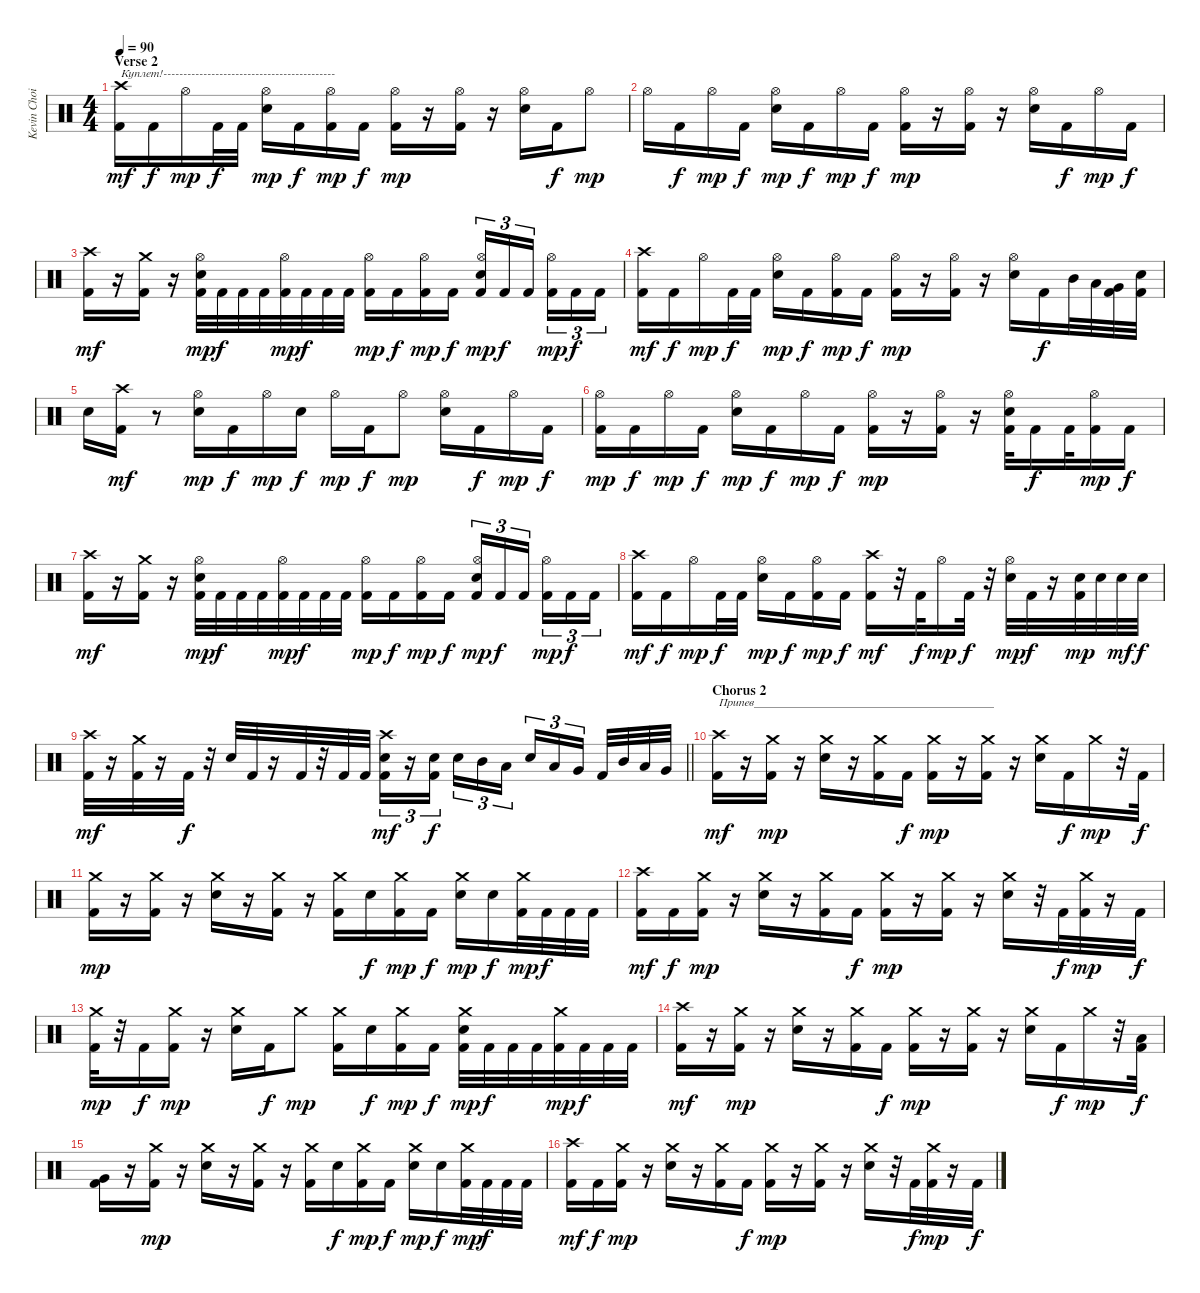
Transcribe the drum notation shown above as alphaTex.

\track ("Kevin Choiral" "Kevin Choi") {instrument percussion}
\staff
\articulation defaults
\ts (4 4)
\section ("" "Verse 2")
\tempo 90
\clef neutral
\ks c
("Crash high (hit)" "Kick (hit) 2").16{txt "Куплет!-------------------------------------------" dy mf} "Kick (hit) 2".16{dy f} "Hi-Hat (open)".16{dy mp} "Kick (hit) 2".32{dy f} "Kick (hit) 2".32 ("Hi-Hat (open)" "Electric Snare (hit)").16{dy mp} "Kick (hit) 2".16{dy f} ("Hi-Hat (open)" "Kick (hit) 2").16{dy mp} "Kick (hit) 2".16{dy f} ("Hi-Hat (open)" "Kick (hit) 2").16{dy mp} r.16 ("Hi-Hat (open)" "Kick (hit) 2").16 r.16 ("Hi-Hat (open)" "Electric Snare (hit)").16 "Kick (hit) 2".16{dy f} "Hi-Hat (open)".8{dy mp} |
"Hi-Hat (open)".16 "Kick (hit) 2".16{dy f} "Hi-Hat (open)".16{dy mp} "Kick (hit) 2".16{dy f} ("Hi-Hat (open)" "Electric Snare (hit)").16{dy mp} "Kick (hit) 2".16{dy f} "Hi-Hat (open)".16{dy mp} "Kick (hit) 2".16{dy f} ("Hi-Hat (open)" "Kick (hit) 2").16{dy mp} r.16 ("Hi-Hat (open)" "Kick (hit) 2").16 r.16 ("Hi-Hat (open)" "Electric Snare (hit)").16 "Kick (hit) 2".16{dy f} "Hi-Hat (open)".16{dy mp} "Kick (hit) 2".16{dy f} |
("Crash high (hit)" "Kick (hit) 2").16{dy mf} r.16 ("Crash medium (hit)" "Kick (hit) 2").16 r.16 ("Hi-Hat (open)" "Electric Snare (hit)" "Kick (hit) 2").32{dy mp} "Kick (hit) 2".32{dy f} "Kick (hit) 2".32 "Kick (hit) 2".32 ("Hi-Hat (open)" "Kick (hit) 2").32{dy mp} "Kick (hit) 2".32{dy f} "Kick (hit) 2".32 "Kick (hit) 2".32 ("Hi-Hat (open)" "Kick (hit) 2").16{dy mp} "Kick (hit) 2".16{dy f} ("Hi-Hat (open)" "Kick (hit) 2").16{dy mp} "Kick (hit) 2".16{dy f} ("Hi-Hat (open)" "Electric Snare (hit)" "Kick (hit) 2").16{tu (3 2) dy mp} "Kick (hit) 2".16{tu (3 2) dy f} "Kick (hit) 2".16{tu (3 2) beam splitsecondary} ("Hi-Hat (open)" "Kick (hit) 2").16{tu (3 2) dy mp} "Kick (hit) 2".16{tu (3 2) dy f} "Kick (hit) 2".16{tu (3 2)} |
("Crash high (hit)" "Kick (hit) 2").16{dy mf} "Kick (hit) 2".16{dy f} "Hi-Hat (open)".16{dy mp} "Kick (hit) 2".32{dy f} "Kick (hit) 2".32 ("Hi-Hat (open)" "Electric Snare (hit)").16{dy mp} "Kick (hit) 2".16{dy f} ("Hi-Hat (open)" "Kick (hit) 2").16{dy mp} "Kick (hit) 2".16{dy f} ("Hi-Hat (open)" "Kick (hit) 2").16{dy mp} r.16 ("Hi-Hat (open)" "Kick (hit) 2").16 r.16 ("Hi-Hat (open)" "Electric Snare (hit)").16 "Kick (hit) 2".16{dy f} "Mid Tom (hit)".32 "Low Tom (hit)".32 ("Very Low Tom (hit)" "Kick (hit) 2").32 ("Electric Snare (hit)" "Kick (hit) 2").32 |
"Electric Snare (hit)".16 ("Crash high (hit)" "Kick (hit) 2").16{dy mf} r.8 ("Hi-Hat (open)" "Electric Snare (hit)").16{dy mp} "Kick (hit) 2".16{dy f} "Hi-Hat (open)".16{dy mp} "Electric Snare (hit)".16{dy f} "Hi-Hat (open)".16{dy mp} "Kick (hit) 2".16{dy f} "Hi-Hat (open)".8{dy mp} ("Hi-Hat (open)" "Electric Snare (hit)").16 "Kick (hit) 2".16{dy f} "Hi-Hat (open)".16{dy mp} "Kick (hit) 2".16{dy f} |
("Hi-Hat (open)" "Kick (hit) 2").16{dy mp} "Kick (hit) 2".16{dy f} "Hi-Hat (open)".16{dy mp} "Kick (hit) 2".16{dy f} ("Hi-Hat (open)" "Electric Snare (hit)").16{dy mp} "Kick (hit) 2".16{dy f} "Hi-Hat (open)".16{dy mp} "Kick (hit) 2".16{dy f} ("Hi-Hat (open)" "Kick (hit) 2").16{dy mp} r.16 ("Hi-Hat (open)" "Kick (hit) 2").16 r.16 ("Hi-Hat (open)" "Electric Snare (hit)" "Kick (hit) 2").32 "Kick (hit) 2".16{dy f} "Kick (hit) 2".32 ("Hi-Hat (open)" "Kick (hit) 2").16{dy mp} "Kick (hit) 2".16{dy f} |
("Crash high (hit)" "Kick (hit) 2").16{dy mf} r.16 ("Crash medium (hit)" "Kick (hit) 2").16 r.16 ("Hi-Hat (open)" "Electric Snare (hit)" "Kick (hit) 2").32{dy mp} "Kick (hit) 2".32{dy f} "Kick (hit) 2".32 "Kick (hit) 2".32 ("Hi-Hat (open)" "Kick (hit) 2").32{dy mp} "Kick (hit) 2".32{dy f} "Kick (hit) 2".32 "Kick (hit) 2".32 ("Hi-Hat (open)" "Kick (hit) 2").16{dy mp} "Kick (hit) 2".16{dy f} ("Hi-Hat (open)" "Kick (hit) 2").16{dy mp} "Kick (hit) 2".16{dy f} ("Hi-Hat (open)" "Electric Snare (hit)" "Kick (hit) 2").16{tu (3 2) dy mp} "Kick (hit) 2".16{tu (3 2) dy f} "Kick (hit) 2".16{tu (3 2) beam splitsecondary} ("Hi-Hat (open)" "Kick (hit) 2").16{tu (3 2) dy mp} "Kick (hit) 2".16{tu (3 2) dy f} "Kick (hit) 2".16{tu (3 2)} |
("Crash high (hit)" "Kick (hit) 2").16{dy mf} "Kick (hit) 2".16{dy f} "Hi-Hat (open)".16{dy mp} "Kick (hit) 2".32{dy f} "Kick (hit) 2".32 ("Hi-Hat (open)" "Electric Snare (hit)").16{dy mp} "Kick (hit) 2".16{dy f} ("Hi-Hat (open)" "Kick (hit) 2").16{dy mp} "Kick (hit) 2".16{dy f} ("Crash high (hit)" "Kick (hit) 2").16{dy mf} r.32 "Kick (hit) 2".32{dy f} "Hi-Hat (open)".16{dy mp} "Kick (hit) 2".32{dy f} r.32 ("Hi-Hat (open)" "Electric Snare (hit)").32{dy mp} "Kick (hit) 2".32{dy f} r.16 ("Electric Snare (hit)" "Kick (hit) 2").32{dy mp} "Electric Snare (hit)".32 "Electric Snare (hit)".32{dy mf} "Electric Snare (hit)".32{dy f} |
\barLineRight lightlight
("Crash high (hit)" "Kick (hit) 2").32{dy mf} r.16 ("Crash medium (hit)" "Kick (hit) 2").32 r.16 "Kick (hit) 2".32{dy f} r.32 "Electric Snare (hit)".32 "Kick (hit) 2".32 r.16 "Kick (hit) 2".32 r.32 "Kick (hit) 2".32 "Kick (hit) 2".32 ("Crash high (hit)" "Electric Snare (hit)" "Kick (hit) 2").16{tu (3 2) dy mf} r.16{tu (3 2)} ("Electric Snare (hit)" "Kick (hit) 2").16{tu (3 2) dy f beam splitsecondary} "Electric Snare (hit)".16{tu (3 2)} "Mid Tom (hit)".16{tu (3 2)} "Low Tom (hit)".16{tu (3 2)} "Electric Snare (hit)".16{tu (3 2)} "Low Tom (hit)".16{tu (3 2)} "Very Low Tom (hit)".16{tu (3 2) beam splitsecondary} "Kick (hit) 2".32 "Mid Tom (hit)".32 "Low Tom (hit)".32 "Very Low Tom (hit)".32 |
\section ("" "Chorus 2")
("Crash high (hit)" "Kick (hit) 2").16{txt "Припев________________________________________" dy mf} r.16 ("Crash medium (hit)" "Kick (hit) 2").16{dy mp} r.16 ("Crash medium (hit)" "Electric Snare (hit)").16 r.16 ("Crash medium (hit)" "Kick (hit) 2").16 "Kick (hit) 2".16{dy f} ("Crash medium (hit)" "Kick (hit) 2").16{dy mp} r.16 ("Crash medium (hit)" "Kick (hit) 2").16 r.16 ("Crash medium (hit)" "Electric Snare (hit)").16 "Kick (hit) 2".16{dy f} "Crash medium (hit)".16{dy mp} r.32 "Kick (hit) 2".32{dy f} |
("Crash medium (hit)" "Kick (hit) 2").16{dy mp} r.16 ("Crash medium (hit)" "Kick (hit) 2").16 r.16 ("Crash medium (hit)" "Electric Snare (hit)").16 r.16 ("Crash medium (hit)" "Kick (hit) 2").16 r.16 ("Crash medium (hit)" "Kick (hit) 2").16 "Electric Snare (hit)".16{dy f} ("Crash medium (hit)" "Kick (hit) 2").16{dy mp} "Kick (hit) 2".16{dy f} ("Crash medium (hit)" "Electric Snare (hit)").16{dy mp} "Electric Snare (hit)".16{dy f} ("Crash medium (hit)" "Kick (hit) 2").32{dy mp} "Kick (hit) 2".32{dy f} "Kick (hit) 2".32 "Kick (hit) 2".32 |
("Crash high (hit)" "Kick (hit) 2").16{dy mf} "Kick (hit) 2".16{dy f} ("Crash medium (hit)" "Kick (hit) 2").16{dy mp} r.16 ("Crash medium (hit)" "Electric Snare (hit)").16 r.16 ("Crash medium (hit)" "Kick (hit) 2").16 "Kick (hit) 2".16{dy f} ("Crash medium (hit)" "Kick (hit) 2").16{dy mp} r.16 ("Crash medium (hit)" "Kick (hit) 2").16 r.16 ("Crash medium (hit)" "Electric Snare (hit)").16 r.32 "Kick (hit) 2".32{dy f} ("Crash medium (hit)" "Kick (hit) 2").32{dy mp} r.16 "Kick (hit) 2".32{dy f} |
("Crash medium (hit)" "Kick (hit) 2").32{dy mp} r.32 "Kick (hit) 2".16{dy f} ("Crash medium (hit)" "Kick (hit) 2").16{dy mp} r.16 ("Crash medium (hit)" "Electric Snare (hit)").16 "Kick (hit) 2".16{dy f} "Crash medium (hit)".8{dy mp} ("Crash medium (hit)" "Kick (hit) 2").16 "Electric Snare (hit)".16{dy f} ("Crash medium (hit)" "Kick (hit) 2").16{dy mp} "Kick (hit) 2".16{dy f} ("Crash medium (hit)" "Electric Snare (hit)" "Kick (hit) 2").32{dy mp} "Kick (hit) 2".32{dy f} "Kick (hit) 2".32 "Kick (hit) 2".32 ("Crash medium (hit)" "Kick (hit) 2").32{dy mp} "Kick (hit) 2".32{dy f} "Kick (hit) 2".32 "Kick (hit) 2".32 |
("Crash high (hit)" "Kick (hit) 2").16{dy mf} r.16 ("Crash medium (hit)" "Kick (hit) 2").16{dy mp} r.16 ("Crash medium (hit)" "Electric Snare (hit)").16 r.16 ("Crash medium (hit)" "Kick (hit) 2").16 "Kick (hit) 2".16{dy f} ("Crash medium (hit)" "Kick (hit) 2").16{dy mp} r.16 ("Crash medium (hit)" "Kick (hit) 2").16 r.16 ("Crash medium (hit)" "Electric Snare (hit)").16 "Kick (hit) 2".16{dy f} "Crash medium (hit)".16{dy mp} r.32 ("Low Tom (hit)" "Kick (hit) 2").32{dy f} |
("Very Low Tom (hit)" "Kick (hit) 2").16 r.16 ("Crash medium (hit)" "Kick (hit) 2").16{dy mp} r.16 ("Crash medium (hit)" "Electric Snare (hit)").16 r.16 ("Crash medium (hit)" "Kick (hit) 2").16 r.16 ("Crash medium (hit)" "Kick (hit) 2").16 "Electric Snare (hit)".16{dy f} ("Crash medium (hit)" "Kick (hit) 2").16{dy mp} "Kick (hit) 2".16{dy f} ("Crash medium (hit)" "Electric Snare (hit)").16{dy mp} "Electric Snare (hit)".16{dy f} ("Crash medium (hit)" "Kick (hit) 2").32{dy mp} "Kick (hit) 2".32{dy f} "Kick (hit) 2".32 "Kick (hit) 2".32 |
("Crash high (hit)" "Kick (hit) 2").16{dy mf} "Kick (hit) 2".16{dy f} ("Crash medium (hit)" "Kick (hit) 2").16{dy mp} r.16 ("Crash medium (hit)" "Electric Snare (hit)").16 r.16 ("Crash medium (hit)" "Kick (hit) 2").16 "Kick (hit) 2".16{dy f} ("Crash medium (hit)" "Kick (hit) 2").16{dy mp} r.16 ("Crash medium (hit)" "Kick (hit) 2").16 r.16 ("Crash medium (hit)" "Electric Snare (hit)").16 r.32 "Kick (hit) 2".32{dy f} ("Crash medium (hit)" "Kick (hit) 2").32{dy mp} r.16 "Kick (hit) 2".32{dy f}
